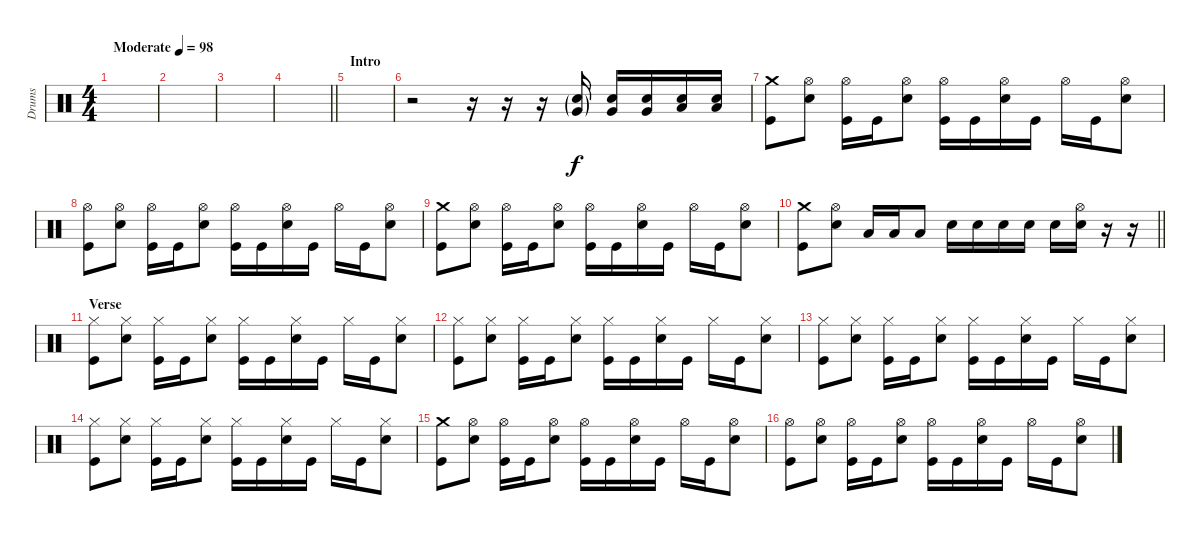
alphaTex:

\track ("Drums" "Drums") {instrument percussion}
\staff {score}
\articulation defaults
\ts (4 4)
\tempo (98 "Moderate")
\clef neutral
\ks c
|
|
|
\barLineRight lightlight
|
\section ("" "Intro")
|
r.2 r.16 r.16 r.16 ("Very Low Tom (hit)"{g} "Electric Snare (hit)"{g}).16 ("Very Low Tom (hit)" "Electric Snare (hit)").16{dy f} ("Very Low Tom (hit)" "Electric Snare (hit)").16 ("Low Tom (hit)" "Electric Snare (hit)").16 ("Low Tom (hit)" "Electric Snare (hit)").16 |
("Crash medium (hit)" "Kick (hit)").8 ("Hi-Hat (open)" "Electric Snare (hit)").8 ("Hi-Hat (open)" "Kick (hit)").16 "Kick (hit)".16 ("Hi-Hat (open)" "Electric Snare (hit)").8 ("Hi-Hat (open)" "Kick (hit)").16 "Kick (hit)".16 ("Hi-Hat (open)" "Electric Snare (hit)").16 "Kick (hit)".16 "Hi-Hat (open)".16 "Kick (hit)".16 ("Hi-Hat (open)" "Electric Snare (hit)").8 |
("Hi-Hat (open)" "Kick (hit)").8 ("Hi-Hat (open)" "Electric Snare (hit)").8 ("Hi-Hat (open)" "Kick (hit)").16 "Kick (hit)".16 ("Hi-Hat (open)" "Electric Snare (hit)").8 ("Hi-Hat (open)" "Kick (hit)").16 "Kick (hit)".16 ("Hi-Hat (open)" "Electric Snare (hit)").16 "Kick (hit)".16 "Hi-Hat (open)".16 "Kick (hit)".16 ("Hi-Hat (open)" "Electric Snare (hit)").8 |
("Crash medium (hit)" "Kick (hit)").8 ("Hi-Hat (open)" "Electric Snare (hit)").8 ("Hi-Hat (open)" "Kick (hit)").16 "Kick (hit)".16 ("Hi-Hat (open)" "Electric Snare (hit)").8 ("Hi-Hat (open)" "Kick (hit)").16 "Kick (hit)".16 ("Hi-Hat (open)" "Electric Snare (hit)").16 "Kick (hit)".16 "Hi-Hat (open)".16 "Kick (hit)".16 ("Hi-Hat (open)" "Electric Snare (hit)").8 |
\barLineRight lightlight
("Crash medium (hit)" "Kick (hit)").8 ("Hi-Hat (open)" "Electric Snare (hit)").8 "Low Tom (hit)".16 "Low Tom (hit)".16 "Low Tom (hit)".8 "Electric Snare (hit)".16 "Electric Snare (hit)".16 "Electric Snare (hit)".16 "Electric Snare (hit)".16 "Electric Snare (hit)".16 ("Hi-Hat (open)" "Electric Snare (hit)").16 r.16 r.16 |
\section ("" "Verse")
("Hi-Hat (closed)" "Kick (hit)").8 ("Hi-Hat (closed)" "Electric Snare (hit)").8 ("Hi-Hat (closed)" "Kick (hit)").16 "Kick (hit)".16 ("Hi-Hat (closed)" "Electric Snare (hit)").8 ("Hi-Hat (closed)" "Kick (hit)").16 "Kick (hit)".16 ("Hi-Hat (closed)" "Electric Snare (hit)").16 "Kick (hit)".16 "Hi-Hat (closed)".16 "Kick (hit)".16 ("Hi-Hat (closed)" "Electric Snare (hit)").8 |
("Hi-Hat (closed)" "Kick (hit)").8 ("Hi-Hat (closed)" "Electric Snare (hit)").8 ("Hi-Hat (closed)" "Kick (hit)").16 "Kick (hit)".16 ("Hi-Hat (closed)" "Electric Snare (hit)").8 ("Hi-Hat (closed)" "Kick (hit)").16 "Kick (hit)".16 ("Hi-Hat (closed)" "Electric Snare (hit)").16 "Kick (hit)".16 "Hi-Hat (closed)".16 "Kick (hit)".16 ("Hi-Hat (closed)" "Electric Snare (hit)").8 |
("Hi-Hat (closed)" "Kick (hit)").8 ("Hi-Hat (closed)" "Electric Snare (hit)").8 ("Hi-Hat (closed)" "Kick (hit)").16 "Kick (hit)".16 ("Hi-Hat (closed)" "Electric Snare (hit)").8 ("Hi-Hat (closed)" "Kick (hit)").16 "Kick (hit)".16 ("Hi-Hat (closed)" "Electric Snare (hit)").16 "Kick (hit)".16 "Hi-Hat (closed)".16 "Kick (hit)".16 ("Hi-Hat (closed)" "Electric Snare (hit)").8 |
("Hi-Hat (closed)" "Kick (hit)").8 ("Hi-Hat (closed)" "Electric Snare (hit)").8 ("Hi-Hat (closed)" "Kick (hit)").16 "Kick (hit)".16 ("Hi-Hat (closed)" "Electric Snare (hit)").8 ("Hi-Hat (closed)" "Kick (hit)").16 "Kick (hit)".16 ("Hi-Hat (closed)" "Electric Snare (hit)").16 "Kick (hit)".16 "Hi-Hat (closed)".16 "Kick (hit)".16 ("Hi-Hat (closed)" "Electric Snare (hit)").8 |
("Crash medium (hit)" "Kick (hit)").8 ("Hi-Hat (open)" "Electric Snare (hit)").8 ("Hi-Hat (open)" "Kick (hit)").16 "Kick (hit)".16 ("Hi-Hat (open)" "Electric Snare (hit)").8 ("Hi-Hat (open)" "Kick (hit)").16 "Kick (hit)".16 ("Hi-Hat (open)" "Electric Snare (hit)").16 "Kick (hit)".16 "Hi-Hat (open)".16 "Kick (hit)".16 ("Hi-Hat (open)" "Electric Snare (hit)").8 |
("Hi-Hat (open)" "Kick (hit)").8 ("Hi-Hat (open)" "Electric Snare (hit)").8 ("Hi-Hat (open)" "Kick (hit)").16 "Kick (hit)".16 ("Hi-Hat (open)" "Electric Snare (hit)").8 ("Hi-Hat (open)" "Kick (hit)").16 "Kick (hit)".16 ("Hi-Hat (open)" "Electric Snare (hit)").16 "Kick (hit)".16 "Hi-Hat (open)".16 "Kick (hit)".16 ("Hi-Hat (open)" "Electric Snare (hit)").8
